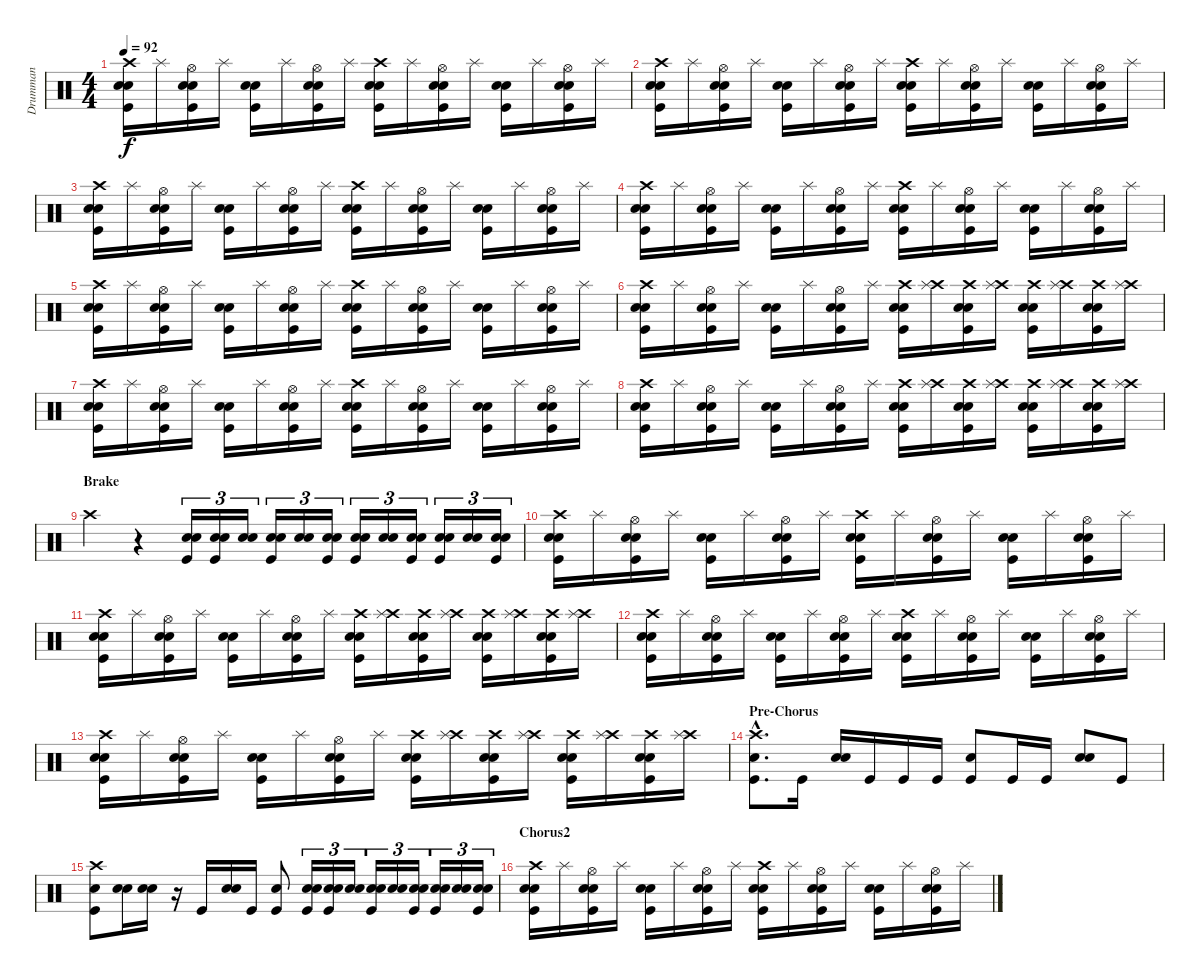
\track ("Drumman" "Drumman") {instrument percussion}
\staff {score}
\articulation defaults
\ts (4 4)
\tempo 92
\clef neutral
\ks c
("Crash high (hit)" "Snare (hit) 2" "Electric Snare (hit)" "Kick (hit)").16{dy f} "Splash (hit)".16 ("Hi-Hat (open)" "Snare (hit) 2" "Electric Snare (hit)" "Kick (hit)").16 "Splash (hit)".16 ("Snare (hit) 2" "Electric Snare (hit)" "Kick (hit)").16 "Splash (hit)".16 ("Hi-Hat (open)" "Snare (hit) 2" "Electric Snare (hit)" "Kick (hit)").16 "Splash (hit)".16 ("Crash high (hit)" "Snare (hit) 2" "Electric Snare (hit)" "Kick (hit)").16 "Splash (hit)".16 ("Hi-Hat (open)" "Snare (hit) 2" "Electric Snare (hit)" "Kick (hit)").16 "Splash (hit)".16 ("Snare (hit) 2" "Electric Snare (hit)" "Kick (hit)").16 "Splash (hit)".16 ("Hi-Hat (open)" "Snare (hit) 2" "Electric Snare (hit)" "Kick (hit)").16 "Splash (hit)".16 |
("Crash high (hit)" "Snare (hit) 2" "Electric Snare (hit)" "Kick (hit)").16 "Splash (hit)".16 ("Hi-Hat (open)" "Snare (hit) 2" "Electric Snare (hit)" "Kick (hit)").16 "Splash (hit)".16 ("Snare (hit) 2" "Electric Snare (hit)" "Kick (hit)").16 "Splash (hit)".16 ("Hi-Hat (open)" "Snare (hit) 2" "Electric Snare (hit)" "Kick (hit)").16 "Splash (hit)".16 ("Crash high (hit)" "Snare (hit) 2" "Electric Snare (hit)" "Kick (hit)").16 "Splash (hit)".16 ("Hi-Hat (open)" "Snare (hit) 2" "Electric Snare (hit)" "Kick (hit)").16 "Splash (hit)".16 ("Snare (hit) 2" "Electric Snare (hit)" "Kick (hit)").16 "Splash (hit)".16 ("Hi-Hat (open)" "Snare (hit) 2" "Electric Snare (hit)" "Kick (hit)").16 "Splash (hit)".16 |
("Crash high (hit)" "Snare (hit) 2" "Electric Snare (hit)" "Kick (hit)").16 "Splash (hit)".16 ("Hi-Hat (open)" "Snare (hit) 2" "Electric Snare (hit)" "Kick (hit)").16 "Splash (hit)".16 ("Snare (hit) 2" "Electric Snare (hit)" "Kick (hit)").16 "Splash (hit)".16 ("Hi-Hat (open)" "Snare (hit) 2" "Electric Snare (hit)" "Kick (hit)").16 "Splash (hit)".16 ("Crash high (hit)" "Snare (hit) 2" "Electric Snare (hit)" "Kick (hit)").16 "Splash (hit)".16 ("Hi-Hat (open)" "Snare (hit) 2" "Electric Snare (hit)" "Kick (hit)").16 "Splash (hit)".16 ("Snare (hit) 2" "Electric Snare (hit)" "Kick (hit)").16 "Splash (hit)".16 ("Hi-Hat (open)" "Snare (hit) 2" "Electric Snare (hit)" "Kick (hit)").16 "Splash (hit)".16 |
("Crash high (hit)" "Snare (hit) 2" "Electric Snare (hit)" "Kick (hit)").16 "Splash (hit)".16 ("Hi-Hat (open)" "Snare (hit) 2" "Electric Snare (hit)" "Kick (hit)").16 "Splash (hit)".16 ("Snare (hit) 2" "Electric Snare (hit)" "Kick (hit)").16 "Splash (hit)".16 ("Hi-Hat (open)" "Snare (hit) 2" "Electric Snare (hit)" "Kick (hit)").16 "Splash (hit)".16 ("Crash high (hit)" "Snare (hit) 2" "Electric Snare (hit)" "Kick (hit)").16 "Splash (hit)".16 ("Hi-Hat (open)" "Snare (hit) 2" "Electric Snare (hit)" "Kick (hit)").16 "Splash (hit)".16 ("Snare (hit) 2" "Electric Snare (hit)" "Kick (hit)").16 "Splash (hit)".16 ("Hi-Hat (open)" "Snare (hit) 2" "Electric Snare (hit)" "Kick (hit)").16 "Splash (hit)".16 |
("Crash high (hit)" "Snare (hit) 2" "Electric Snare (hit)" "Kick (hit)").16 "Splash (hit)".16 ("Hi-Hat (open)" "Snare (hit) 2" "Electric Snare (hit)" "Kick (hit)").16 "Splash (hit)".16 ("Snare (hit) 2" "Electric Snare (hit)" "Kick (hit)").16 "Splash (hit)".16 ("Hi-Hat (open)" "Snare (hit) 2" "Electric Snare (hit)" "Kick (hit)").16 "Splash (hit)".16 ("Crash high (hit)" "Snare (hit) 2" "Electric Snare (hit)" "Kick (hit)").16 "Splash (hit)".16 ("Hi-Hat (open)" "Snare (hit) 2" "Electric Snare (hit)" "Kick (hit)").16 "Splash (hit)".16 ("Snare (hit) 2" "Electric Snare (hit)" "Kick (hit)").16 "Splash (hit)".16 ("Hi-Hat (open)" "Snare (hit) 2" "Electric Snare (hit)" "Kick (hit)").16 "Splash (hit)".16 |
("Crash high (hit)" "Snare (hit) 2" "Electric Snare (hit)" "Kick (hit)").16 "Splash (hit)".16 ("Hi-Hat (open)" "Snare (hit) 2" "Electric Snare (hit)" "Kick (hit)").16 "Splash (hit)".16 ("Snare (hit) 2" "Electric Snare (hit)" "Kick (hit)").16 "Splash (hit)".16 ("Hi-Hat (open)" "Snare (hit) 2" "Electric Snare (hit)" "Kick (hit)").16 "Splash (hit)".16 ("Crash high (hit)" "Snare (hit) 2" "Electric Snare (hit)" "Kick (hit)").16 ("Crash high (hit)" "Splash (hit)").16 ("Crash high (hit)" "Snare (hit) 2" "Electric Snare (hit)" "Kick (hit)").16 ("Crash high (hit)" "Splash (hit)").16 ("Crash high (hit)" "Snare (hit) 2" "Electric Snare (hit)" "Kick (hit)").16 ("Crash high (hit)" "Splash (hit)").16 ("Crash high (hit)" "Snare (hit) 2" "Electric Snare (hit)" "Kick (hit)").16 ("Crash high (hit)" "Splash (hit)").16 |
("Crash high (hit)" "Snare (hit) 2" "Electric Snare (hit)" "Kick (hit)").16 "Splash (hit)".16 ("Hi-Hat (open)" "Snare (hit) 2" "Electric Snare (hit)" "Kick (hit)").16 "Splash (hit)".16 ("Snare (hit) 2" "Electric Snare (hit)" "Kick (hit)").16 "Splash (hit)".16 ("Hi-Hat (open)" "Snare (hit) 2" "Electric Snare (hit)" "Kick (hit)").16 "Splash (hit)".16 ("Crash high (hit)" "Snare (hit) 2" "Electric Snare (hit)" "Kick (hit)").16 "Splash (hit)".16 ("Hi-Hat (open)" "Snare (hit) 2" "Electric Snare (hit)" "Kick (hit)").16 "Splash (hit)".16 ("Snare (hit) 2" "Electric Snare (hit)" "Kick (hit)").16 "Splash (hit)".16 ("Hi-Hat (open)" "Snare (hit) 2" "Electric Snare (hit)" "Kick (hit)").16 "Splash (hit)".16 |
("Crash high (hit)" "Snare (hit) 2" "Electric Snare (hit)" "Kick (hit)").16 "Splash (hit)".16 ("Hi-Hat (open)" "Snare (hit) 2" "Electric Snare (hit)" "Kick (hit)").16 "Splash (hit)".16 ("Snare (hit) 2" "Electric Snare (hit)" "Kick (hit)").16 "Splash (hit)".16 ("Hi-Hat (open)" "Snare (hit) 2" "Electric Snare (hit)" "Kick (hit)").16 "Splash (hit)".16 ("Crash high (hit)" "Snare (hit) 2" "Electric Snare (hit)" "Kick (hit)").16 ("Crash high (hit)" "Splash (hit)").16 ("Crash high (hit)" "Snare (hit) 2" "Electric Snare (hit)" "Kick (hit)").16 ("Crash high (hit)" "Splash (hit)").16 ("Crash high (hit)" "Snare (hit) 2" "Electric Snare (hit)" "Kick (hit)").16 ("Crash high (hit)" "Splash (hit)").16 ("Crash high (hit)" "Snare (hit) 2" "Electric Snare (hit)" "Kick (hit)").16 ("Crash high (hit)" "Splash (hit)").16 |
\section ("" "Brake")
"Crash high (hit)".4 r.4 ("Snare (hit) 2" "Electric Snare (hit)" "Kick (hit)").16{tu (3 2)} ("Snare (hit) 2" "Electric Snare (hit)" "Kick (hit)").16{tu (3 2)} ("Snare (hit) 2" "Electric Snare (hit)").16{tu (3 2)} ("Snare (hit) 2" "Electric Snare (hit)" "Kick (hit)").16{tu (3 2)} ("Snare (hit) 2" "Electric Snare (hit)").16{tu (3 2)} ("Snare (hit) 2" "Electric Snare (hit)" "Kick (hit)").16{tu (3 2)} ("Snare (hit) 2" "Electric Snare (hit)" "Kick (hit)").16{tu (3 2)} ("Snare (hit) 2" "Electric Snare (hit)").16{tu (3 2)} ("Snare (hit) 2" "Electric Snare (hit)" "Kick (hit)").16{tu (3 2)} ("Snare (hit) 2" "Electric Snare (hit)" "Kick (hit)").16{tu (3 2)} ("Snare (hit) 2" "Electric Snare (hit)").16{tu (3 2)} ("Snare (hit) 2" "Electric Snare (hit)" "Kick (hit)").16{tu (3 2)} |
("Crash high (hit)" "Snare (hit) 2" "Electric Snare (hit)" "Kick (hit)").16 "Splash (hit)".16 ("Hi-Hat (open)" "Snare (hit) 2" "Electric Snare (hit)" "Kick (hit)").16 "Splash (hit)".16 ("Snare (hit) 2" "Electric Snare (hit)" "Kick (hit)").16 "Splash (hit)".16 ("Hi-Hat (open)" "Snare (hit) 2" "Electric Snare (hit)" "Kick (hit)").16 "Splash (hit)".16 ("Crash high (hit)" "Snare (hit) 2" "Electric Snare (hit)" "Kick (hit)").16 "Splash (hit)".16 ("Hi-Hat (open)" "Snare (hit) 2" "Electric Snare (hit)" "Kick (hit)").16 "Splash (hit)".16 ("Snare (hit) 2" "Electric Snare (hit)" "Kick (hit)").16 "Splash (hit)".16 ("Hi-Hat (open)" "Snare (hit) 2" "Electric Snare (hit)" "Kick (hit)").16 "Splash (hit)".16 |
("Crash high (hit)" "Snare (hit) 2" "Electric Snare (hit)" "Kick (hit)").16 "Splash (hit)".16 ("Hi-Hat (open)" "Snare (hit) 2" "Electric Snare (hit)" "Kick (hit)").16 "Splash (hit)".16 ("Snare (hit) 2" "Electric Snare (hit)" "Kick (hit)").16 "Splash (hit)".16 ("Hi-Hat (open)" "Snare (hit) 2" "Electric Snare (hit)" "Kick (hit)").16 "Splash (hit)".16 ("Crash high (hit)" "Snare (hit) 2" "Electric Snare (hit)" "Kick (hit)").16 ("Crash high (hit)" "Splash (hit)").16 ("Crash high (hit)" "Snare (hit) 2" "Electric Snare (hit)" "Kick (hit)").16 ("Crash high (hit)" "Splash (hit)").16 ("Crash high (hit)" "Snare (hit) 2" "Electric Snare (hit)" "Kick (hit)").16 ("Crash high (hit)" "Splash (hit)").16 ("Crash high (hit)" "Snare (hit) 2" "Electric Snare (hit)" "Kick (hit)").16 ("Crash high (hit)" "Splash (hit)").16 |
("Crash high (hit)" "Snare (hit) 2" "Electric Snare (hit)" "Kick (hit)").16 "Splash (hit)".16 ("Hi-Hat (open)" "Snare (hit) 2" "Electric Snare (hit)" "Kick (hit)").16 "Splash (hit)".16 ("Snare (hit) 2" "Electric Snare (hit)" "Kick (hit)").16 "Splash (hit)".16 ("Hi-Hat (open)" "Snare (hit) 2" "Electric Snare (hit)" "Kick (hit)").16 "Splash (hit)".16 ("Crash high (hit)" "Snare (hit) 2" "Electric Snare (hit)" "Kick (hit)").16 "Splash (hit)".16 ("Hi-Hat (open)" "Snare (hit) 2" "Electric Snare (hit)" "Kick (hit)").16 "Splash (hit)".16 ("Snare (hit) 2" "Electric Snare (hit)" "Kick (hit)").16 "Splash (hit)".16 ("Hi-Hat (open)" "Snare (hit) 2" "Electric Snare (hit)" "Kick (hit)").16 "Splash (hit)".16 |
("Crash high (hit)" "Snare (hit) 2" "Electric Snare (hit)" "Kick (hit)").16 "Splash (hit)".16 ("Hi-Hat (open)" "Snare (hit) 2" "Electric Snare (hit)" "Kick (hit)").16 "Splash (hit)".16 ("Snare (hit) 2" "Electric Snare (hit)" "Kick (hit)").16 "Splash (hit)".16 ("Hi-Hat (open)" "Snare (hit) 2" "Electric Snare (hit)" "Kick (hit)").16 "Splash (hit)".16 ("Crash high (hit)" "Snare (hit) 2" "Electric Snare (hit)" "Kick (hit)").16 ("Crash high (hit)" "Splash (hit)").16 ("Crash high (hit)" "Snare (hit) 2" "Electric Snare (hit)" "Kick (hit)").16 ("Crash high (hit)" "Splash (hit)").16 ("Crash high (hit)" "Snare (hit) 2" "Electric Snare (hit)" "Kick (hit)").16 ("Crash high (hit)" "Splash (hit)").16 ("Crash high (hit)" "Snare (hit) 2" "Electric Snare (hit)" "Kick (hit)").16 ("Crash high (hit)" "Splash (hit)").16 |
\section ("" "Pre-Chorus")
("Hand Clap (hit)"{hac} "Crash high (hit)"{hac} "Kick (hit)"{hac}).8{d} "Kick (hit)".16 ("Snare (hit) 2" "Electric Snare (hit)").16 "Kick (hit)".16 "Kick (hit)".16 "Kick (hit)".16 ("Hand Clap (hit)" "Kick (hit)").8 "Kick (hit)".16 "Kick (hit)".16 ("Snare (hit) 2" "Electric Snare (hit)").8 "Kick (hit)".8 |
("Hand Clap (hit)" "Crash high (hit)" "Kick (hit)").8 ("Snare (hit) 2" "Electric Snare (hit)").16 ("Snare (hit) 2" "Electric Snare (hit)").16 r.16 "Kick (hit)".16 ("Snare (hit) 2" "Electric Snare (hit)").16 "Kick (hit)".16 ("Hand Clap (hit)" "Kick (hit)").8 ("Snare (hit) 2" "Electric Snare (hit)" "Kick (hit)").16{tu (3 2)} ("Snare (hit) 2" "Electric Snare (hit)" "Kick (hit)").16{tu (3 2)} ("Snare (hit) 2" "Electric Snare (hit)").16{tu (3 2)} ("Snare (hit) 2" "Electric Snare (hit)" "Kick (hit)").16{tu (3 2)} ("Snare (hit) 2" "Electric Snare (hit)").16{tu (3 2)} ("Snare (hit) 2" "Electric Snare (hit)" "Kick (hit)").16{tu (3 2)} ("Snare (hit) 2" "Electric Snare (hit)" "Kick (hit)").16{tu (3 2)} ("Snare (hit) 2" "Electric Snare (hit)").16{tu (3 2)} ("Snare (hit) 2" "Electric Snare (hit)" "Kick (hit)").16{tu (3 2)} |
\section ("" "Chorus2")
("Crash high (hit)" "Snare (hit) 2" "Electric Snare (hit)" "Kick (hit)").16 "Splash (hit)".16 ("Hi-Hat (open)" "Snare (hit) 2" "Electric Snare (hit)" "Kick (hit)").16 "Splash (hit)".16 ("Snare (hit) 2" "Electric Snare (hit)" "Kick (hit)").16 "Splash (hit)".16 ("Hi-Hat (open)" "Snare (hit) 2" "Electric Snare (hit)" "Kick (hit)").16 "Splash (hit)".16 ("Crash high (hit)" "Snare (hit) 2" "Electric Snare (hit)" "Kick (hit)").16 "Splash (hit)".16 ("Hi-Hat (open)" "Snare (hit) 2" "Electric Snare (hit)" "Kick (hit)").16 "Splash (hit)".16 ("Snare (hit) 2" "Electric Snare (hit)" "Kick (hit)").16 "Splash (hit)".16 ("Hi-Hat (open)" "Snare (hit) 2" "Electric Snare (hit)" "Kick (hit)").16 "Splash (hit)".16
